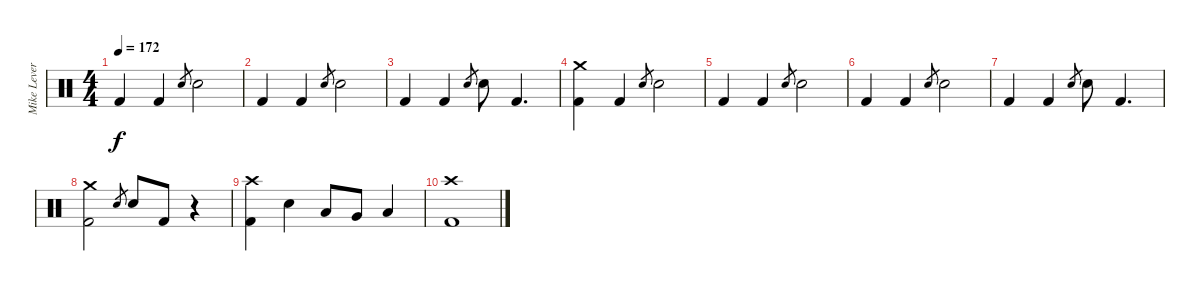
\track ("Mike Leverence - Drums" "Mike Lever") {instrument percussion}
\staff {score}
\articulation defaults
\ts (4 4)
\tempo 172
\clef neutral
\ks c "Kick (hit) 2".4{dy f} "Kick (hit) 2".4 "Electric Snare (hit)".8{gr} "Electric Snare (hit)".2
|
"Kick (hit) 2".4 "Kick (hit) 2".4 "Electric Snare (hit)".8{gr} "Electric Snare (hit)".2 |
"Kick (hit) 2".4 "Kick (hit) 2".4 "Electric Snare (hit)".8{gr} "Electric Snare (hit)".8 "Kick (hit) 2".4{d} |
("Crash medium (hit)" "Kick (hit) 2").4 "Kick (hit) 2".4 "Electric Snare (hit)".8{gr} "Electric Snare (hit)".2 |
"Kick (hit) 2".4 "Kick (hit) 2".4 "Electric Snare (hit)".8{gr} "Electric Snare (hit)".2 |
"Kick (hit) 2".4 "Kick (hit) 2".4 "Electric Snare (hit)".8{gr} "Electric Snare (hit)".2 |
"Kick (hit) 2".4 "Kick (hit) 2".4 "Electric Snare (hit)".8{gr} "Electric Snare (hit)".8 "Kick (hit) 2".4{d} |
("Crash medium (hit)" "Kick (hit) 2").2 "Electric Snare (hit)".8{gr} "Electric Snare (hit)".8 "Kick (hit) 2".8 r.4 |
("Crash high (hit)" "Kick (hit) 2").4 "Electric Snare (hit)".4 "Low Tom (hit)".8 "Very Low Tom (hit)".8 "Low Floor Tom (hit)".4 |
("Crash high (hit)" "Kick (hit) 2").1
